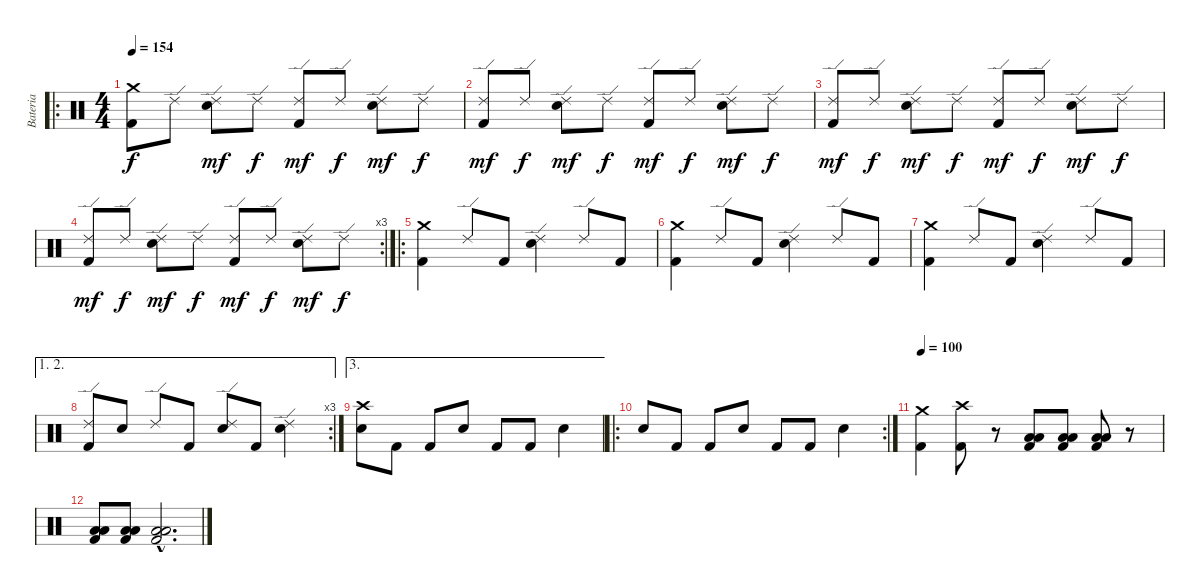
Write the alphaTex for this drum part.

\track ("Bateria" "Bateria") {instrument percussion}
\staff {score}
\articulation defaults
\ro
\ts (4 4)
\tempo 154
\clef neutral
\ks c
("Kick (hit) 2" "Crash medium (hit)").8{dy f} "Ride (edge) 2".8 ("Ride (edge) 2" "Snare (hit) 2").8{dy mf} "Ride (edge) 2".8{dy f} ("Kick (hit) 2" "Ride (edge) 2").8{dy mf} "Ride (edge) 2".8{dy f} ("Ride (edge) 2" "Snare (hit) 2").8{dy mf} "Ride (edge) 2".8{dy f} |
("Kick (hit) 2" "Ride (edge) 2").8{dy mf} "Ride (edge) 2".8{dy f} ("Ride (edge) 2" "Snare (hit) 2").8{dy mf} "Ride (edge) 2".8{dy f} ("Kick (hit) 2" "Ride (edge) 2").8{dy mf} "Ride (edge) 2".8{dy f} ("Ride (edge) 2" "Snare (hit) 2").8{dy mf} "Ride (edge) 2".8{dy f} |
("Kick (hit) 2" "Ride (edge) 2").8{dy mf} "Ride (edge) 2".8{dy f} ("Ride (edge) 2" "Snare (hit) 2").8{dy mf} "Ride (edge) 2".8{dy f} ("Kick (hit) 2" "Ride (edge) 2").8{dy mf} "Ride (edge) 2".8{dy f} ("Ride (edge) 2" "Snare (hit) 2").8{dy mf} "Ride (edge) 2".8{dy f} |
\rc 3
("Kick (hit) 2" "Ride (edge) 2").8{dy mf} "Ride (edge) 2".8{dy f} ("Ride (edge) 2" "Snare (hit) 2").8{dy mf} "Ride (edge) 2".8{dy f} ("Kick (hit) 2" "Ride (edge) 2").8{dy mf} "Ride (edge) 2".8{dy f} ("Ride (edge) 2" "Snare (hit) 2").8{dy mf} "Ride (edge) 2".8{dy f} |
\ro
("Kick (hit) 2" "Crash medium (hit)").4 "Ride (edge) 2".8 "Kick (hit) 2".8 ("Ride (edge) 2" "Snare (hit) 2").4 "Ride (edge) 2".8 "Kick (hit) 2".8 |
("Kick (hit) 2" "Crash medium (hit)").4 "Ride (edge) 2".8 "Kick (hit) 2".8 ("Ride (edge) 2" "Snare (hit) 2").4 "Ride (edge) 2".8 "Kick (hit) 2".8 |
("Kick (hit) 2" "Crash medium (hit)").4 "Ride (edge) 2".8 "Kick (hit) 2".8 ("Ride (edge) 2" "Snare (hit) 2").4 "Ride (edge) 2".8 "Kick (hit) 2".8 |
\ae (1 2)
\rc 3
("Kick (hit) 2" "Ride (edge) 2").8 "Snare (hit) 2".8 "Ride (edge) 2".8 "Kick (hit) 2".8 ("Ride (edge) 2" "Snare (hit) 2").8 "Kick (hit) 2".8 ("Ride (edge) 2" "Snare (hit) 2").4 |
\ae 3
("Crash high (hit)" "Snare (hit) 2").8 "Kick (hit) 2".8 "Kick (hit) 2".8 "Snare (hit) 2".8 "Kick (hit) 2".8 "Kick (hit) 2".8 "Snare (hit) 2".4 |
\ro
\rc 2 "Snare (hit) 2".8 "Kick (hit) 2".8 "Kick (hit) 2".8 "Snare (hit) 2".8 "Kick (hit) 2".8 "Kick (hit) 2".8 "Snare (hit) 2".4
|
\tempo 100
("Kick (hit) 2" "Crash medium (hit)").4 ("Kick (hit) 2" "Crash high (hit)").8 r.8 ("Kick (hit) 2" "Low Floor Tom (hit)" "Low Floor Tom (hit)").8 ("Kick (hit) 2" "Low Floor Tom (hit)" "Low Floor Tom (hit)").8 ("Kick (hit) 2" "Low Floor Tom (hit)" "Low Floor Tom (hit)").8 r.8 |
("Kick (hit) 2" "Low Floor Tom (hit)" "Low Floor Tom (hit)").8 ("Kick (hit) 2" "Low Floor Tom (hit)" "Low Floor Tom (hit)").8 ("Kick (hit) 2"{hac} "Low Floor Tom (hit)"{hac} "Low Floor Tom (hit)"{hac}).2{d}
